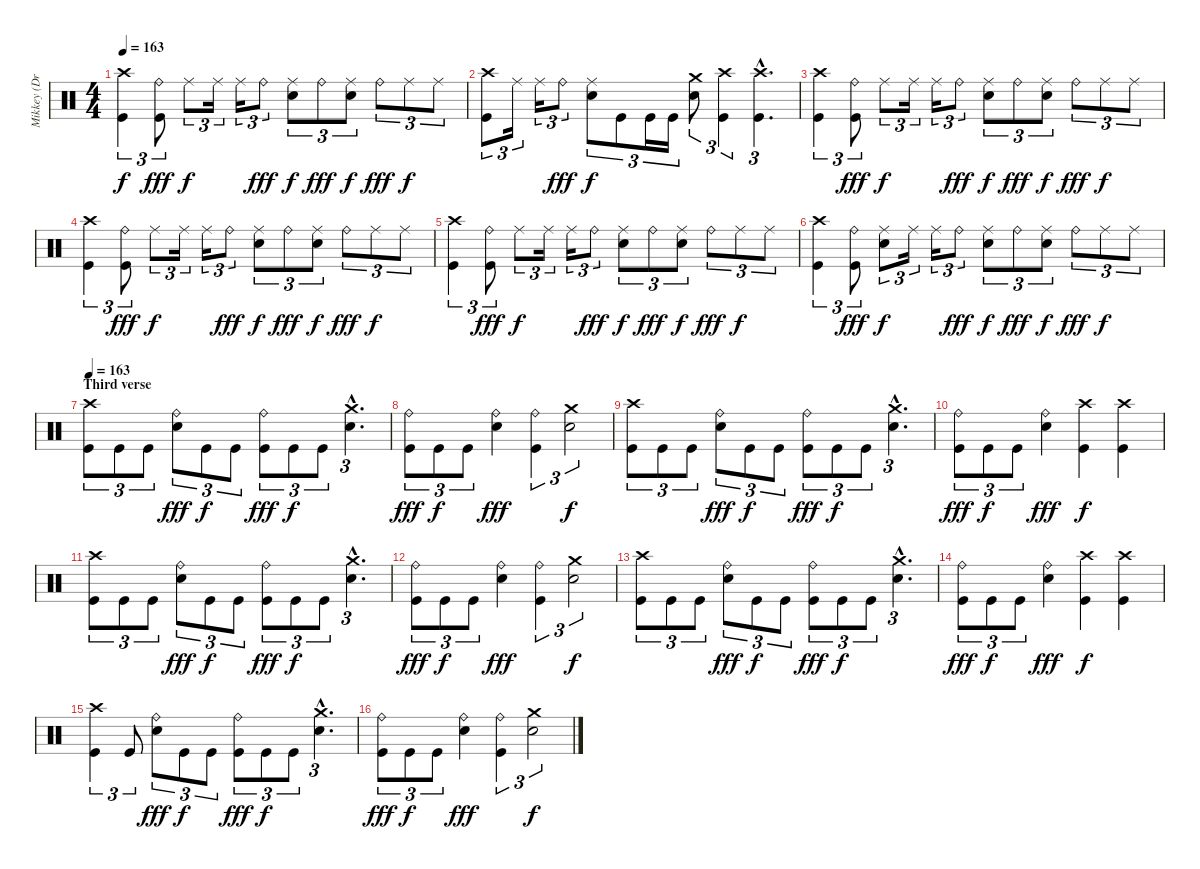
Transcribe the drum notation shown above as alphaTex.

\track ("Mikkey (Drums)" "Mikkey (Dr") {instrument percussion}
\staff {score}
\articulation defaults
\ts (4 4)
\tempo 163
\clef neutral
\ks c
("Crash high (hit)" "Kick (hit)").4{tu (3 2) dy f} ("Ride (bell)" "Kick (hit)").8{tu (3 2) dy fff} "Ride (middle)".8{tu (3 2) dy f} "Ride (middle)".16{tu (3 2)} "Ride (middle)".16{tu (3 2)} "Ride (bell)".8{tu (3 2) dy fff} ("Ride (middle)" "Electric Snare (hit)").8{tu (3 2) dy f} "Ride (bell)".8{tu (3 2) dy fff} ("Ride (middle)" "Electric Snare (hit)").8{tu (3 2) dy f} "Ride (bell)".8{tu (3 2) dy fff} "Ride (middle)".8{tu (3 2) dy f} "Ride (middle)".8{tu (3 2)} |
("Crash high (hit)" "Kick (hit)").8{tu (3 2)} "Ride (middle)".16{tu (3 2)} "Ride (middle)".16{tu (3 2)} "Ride (bell)".8{tu (3 2) dy fff} ("Ride (middle)" "Electric Snare (hit)").8{tu (3 2) dy f} "Kick (hit)".8{tu (3 2)} "Kick (hit)".16{tu (3 2)} "Kick (hit)".16{tu (3 2)} ("Crash medium (hit)" "Electric Snare (hit)").8{tu (3 2)} ("Crash high (hit)" "Kick (hit)").4{tu (3 2)} ("Crash high (hit)"{hac} "Kick (hit)"{hac}).4{d tu (3 2)} |
("Crash high (hit)" "Kick (hit)").4{tu (3 2)} ("Ride (bell)" "Kick (hit)").8{tu (3 2) dy fff} "Ride (middle)".8{tu (3 2) dy f} "Ride (middle)".16{tu (3 2)} "Ride (middle)".16{tu (3 2)} "Ride (bell)".8{tu (3 2) dy fff} ("Ride (middle)" "Electric Snare (hit)").8{tu (3 2) dy f} "Ride (bell)".8{tu (3 2) dy fff} ("Ride (middle)" "Electric Snare (hit)").8{tu (3 2) dy f} "Ride (bell)".8{tu (3 2) dy fff} "Ride (middle)".8{tu (3 2) dy f} "Ride (middle)".8{tu (3 2)} |
("Crash high (hit)" "Kick (hit)").4{tu (3 2)} ("Ride (bell)" "Kick (hit)").8{tu (3 2) dy fff} "Ride (middle)".8{tu (3 2) dy f} "Ride (middle)".16{tu (3 2)} "Ride (middle)".16{tu (3 2)} "Ride (bell)".8{tu (3 2) dy fff} ("Ride (middle)" "Electric Snare (hit)").8{tu (3 2) dy f} "Ride (bell)".8{tu (3 2) dy fff} ("Ride (middle)" "Electric Snare (hit)").8{tu (3 2) dy f} "Ride (bell)".8{tu (3 2) dy fff} "Ride (middle)".8{tu (3 2) dy f} "Ride (middle)".8{tu (3 2)} |
("Crash high (hit)" "Kick (hit)").4{tu (3 2)} ("Ride (bell)" "Kick (hit)").8{tu (3 2) dy fff} "Ride (middle)".8{tu (3 2) dy f} "Ride (middle)".16{tu (3 2)} "Ride (middle)".16{tu (3 2)} "Ride (bell)".8{tu (3 2) dy fff} ("Ride (middle)" "Electric Snare (hit)").8{tu (3 2) dy f} "Ride (bell)".8{tu (3 2) dy fff} ("Ride (middle)" "Electric Snare (hit)").8{tu (3 2) dy f} "Ride (bell)".8{tu (3 2) dy fff} "Ride (middle)".8{tu (3 2) dy f} "Ride (middle)".8{tu (3 2)} |
("Crash high (hit)" "Kick (hit)").4{tu (3 2)} ("Ride (bell)" "Kick (hit)").8{tu (3 2) dy fff} ("Ride (middle)" "Electric Snare (hit)").8{tu (3 2) dy f} "Ride (middle)".16{tu (3 2)} "Ride (middle)".16{tu (3 2)} "Ride (bell)".8{tu (3 2) dy fff} ("Ride (middle)" "Electric Snare (hit)").8{tu (3 2) dy f} "Ride (bell)".8{tu (3 2) dy fff} ("Ride (middle)" "Electric Snare (hit)").8{tu (3 2) dy f} "Ride (bell)".8{tu (3 2) dy fff} "Ride (middle)".8{tu (3 2) dy f} "Ride (middle)".8{tu (3 2)} |
\section ("" "Third verse")
\tempo 163
("Crash high (hit)" "Kick (hit)").8{tu (3 2)} "Kick (hit)".8{tu (3 2)} "Kick (hit)".8{tu (3 2)} ("Ride (bell)" "Electric Snare (hit)").8{tu (3 2) dy fff} "Kick (hit)".8{tu (3 2) dy f} "Kick (hit)".8{tu (3 2)} ("Ride (bell)" "Kick (hit)").8{tu (3 2) dy fff} "Kick (hit)".8{tu (3 2) dy f} "Kick (hit)".8{tu (3 2)} ("Crash medium (hit)"{hac} "Electric Snare (hit)"{hac}).4{d tu (3 2)} |
("Ride (bell)" "Kick (hit)").8{tu (3 2) dy fff} "Kick (hit)".8{tu (3 2) dy f} "Kick (hit)".8{tu (3 2)} ("Ride (bell)" "Electric Snare (hit)").4{dy fff} ("Ride (bell)" "Kick (hit)").4{tu (3 2)} ("Crash medium (hit)" "Electric Snare (hit)").2{tu (3 2) dy f} |
("Crash high (hit)" "Kick (hit)").8{tu (3 2)} "Kick (hit)".8{tu (3 2)} "Kick (hit)".8{tu (3 2)} ("Ride (bell)" "Electric Snare (hit)").8{tu (3 2) dy fff} "Kick (hit)".8{tu (3 2) dy f} "Kick (hit)".8{tu (3 2)} ("Ride (bell)" "Kick (hit)").8{tu (3 2) dy fff} "Kick (hit)".8{tu (3 2) dy f} "Kick (hit)".8{tu (3 2)} ("Crash medium (hit)"{hac} "Electric Snare (hit)"{hac}).4{d tu (3 2)} |
("Ride (bell)" "Kick (hit)").8{tu (3 2) dy fff} "Kick (hit)".8{tu (3 2) dy f} "Kick (hit)".8{tu (3 2)} ("Ride (bell)" "Electric Snare (hit)").4{dy fff} ("Crash high (hit)" "Kick (hit)").4{dy f} ("Crash high (hit)" "Kick (hit)").4 |
("Crash high (hit)" "Kick (hit)").8{tu (3 2)} "Kick (hit)".8{tu (3 2)} "Kick (hit)".8{tu (3 2)} ("Ride (bell)" "Electric Snare (hit)").8{tu (3 2) dy fff} "Kick (hit)".8{tu (3 2) dy f} "Kick (hit)".8{tu (3 2)} ("Ride (bell)" "Kick (hit)").8{tu (3 2) dy fff} "Kick (hit)".8{tu (3 2) dy f} "Kick (hit)".8{tu (3 2)} ("Crash medium (hit)"{hac} "Electric Snare (hit)"{hac}).4{d tu (3 2)} |
("Ride (bell)" "Kick (hit)").8{tu (3 2) dy fff} "Kick (hit)".8{tu (3 2) dy f} "Kick (hit)".8{tu (3 2)} ("Ride (bell)" "Electric Snare (hit)").4{dy fff} ("Ride (bell)" "Kick (hit)").4{tu (3 2)} ("Crash medium (hit)" "Electric Snare (hit)").2{tu (3 2) dy f} |
("Crash high (hit)" "Kick (hit)").8{tu (3 2)} "Kick (hit)".8{tu (3 2)} "Kick (hit)".8{tu (3 2)} ("Ride (bell)" "Electric Snare (hit)").8{tu (3 2) dy fff} "Kick (hit)".8{tu (3 2) dy f} "Kick (hit)".8{tu (3 2)} ("Ride (bell)" "Kick (hit)").8{tu (3 2) dy fff} "Kick (hit)".8{tu (3 2) dy f} "Kick (hit)".8{tu (3 2)} ("Crash medium (hit)"{hac} "Electric Snare (hit)"{hac}).4{d tu (3 2)} |
("Ride (bell)" "Kick (hit)").8{tu (3 2) dy fff} "Kick (hit)".8{tu (3 2) dy f} "Kick (hit)".8{tu (3 2)} ("Ride (bell)" "Electric Snare (hit)").4{dy fff} ("Crash high (hit)" "Kick (hit)").4{dy f} ("Crash high (hit)" "Kick (hit)").4 |
("Crash high (hit)" "Kick (hit)").4{tu (3 2)} "Kick (hit)".8{tu (3 2)} ("Ride (bell)" "Electric Snare (hit)").8{tu (3 2) dy fff} "Kick (hit)".8{tu (3 2) dy f} "Kick (hit)".8{tu (3 2)} ("Ride (bell)" "Kick (hit)").8{tu (3 2) dy fff} "Kick (hit)".8{tu (3 2) dy f} "Kick (hit)".8{tu (3 2)} ("Crash medium (hit)"{hac} "Electric Snare (hit)"{hac}).4{d tu (3 2)} |
("Ride (bell)" "Kick (hit)").8{tu (3 2) dy fff} "Kick (hit)".8{tu (3 2) dy f} "Kick (hit)".8{tu (3 2)} ("Ride (bell)" "Electric Snare (hit)").4{dy fff} ("Ride (bell)" "Kick (hit)").4{tu (3 2)} ("Crash medium (hit)" "Electric Snare (hit)").2{tu (3 2) dy f}
